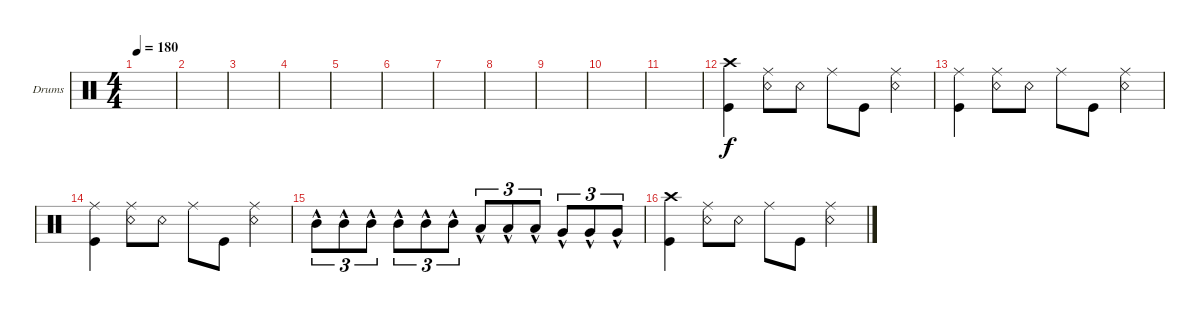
\defaultSystemsLayout 4
\bracketExtendMode groupsimilarinstruments
\firstSystemTrackNameOrientation horizontal
\otherSystemsTrackNameOrientation horizontal
\track ("Drumkit" "Drums") {instrument percussion}
\staff {score}
\articulation defaults
\ts (4 4)
\tempo 180
\clef neutral
\ks c
|
|
|
|
|
|
|
|
|
|
|
("Crash high (hit)" "Kick (hit)").4 ("Snare (rim shot)" "Ride (middle)").8 "Snare (rim shot)".8 "Ride (middle)".8 "Kick (hit)".8 ("Snare (rim shot)" "Ride (middle)").4 |
("Kick (hit)" "Ride (middle)").4 ("Snare (rim shot)" "Ride (middle)").8 "Snare (rim shot)".8 "Ride (middle)".8 "Kick (hit)".8 ("Snare (rim shot)" "Ride (middle)").4 |
("Kick (hit)" "Ride (middle)").4 ("Snare (rim shot)" "Ride (middle)").8 "Snare (rim shot)".8 "Ride (middle)".8 "Kick (hit)".8 ("Snare (rim shot)" "Ride (middle)").4 |
"Mid Tom (hit)"{hac}.8{tu (3 2)} "Mid Tom (hit)"{hac}.8{tu (3 2)} "Mid Tom (hit)"{hac}.8{tu (3 2)} "Mid Tom (hit)"{hac}.8{tu (3 2)} "Mid Tom (hit)"{hac}.8{tu (3 2)} "Mid Tom (hit)"{hac}.8{tu (3 2)} "Low Tom (hit)"{hac}.8{tu (3 2)} "Low Tom (hit)"{hac}.8{tu (3 2)} "Low Tom (hit)"{hac}.8{tu (3 2)} "Very Low Tom (hit)"{hac}.8{tu (3 2)} "Very Low Tom (hit)"{hac}.8{tu (3 2)} "Very Low Tom (hit)"{hac}.8{tu (3 2)} |
("Crash high (hit)" "Kick (hit)").4 ("Snare (rim shot)" "Ride (middle)").8 "Snare (rim shot)".8 "Ride (middle)".8 "Kick (hit)".8 ("Snare (rim shot)" "Ride (middle)").4
